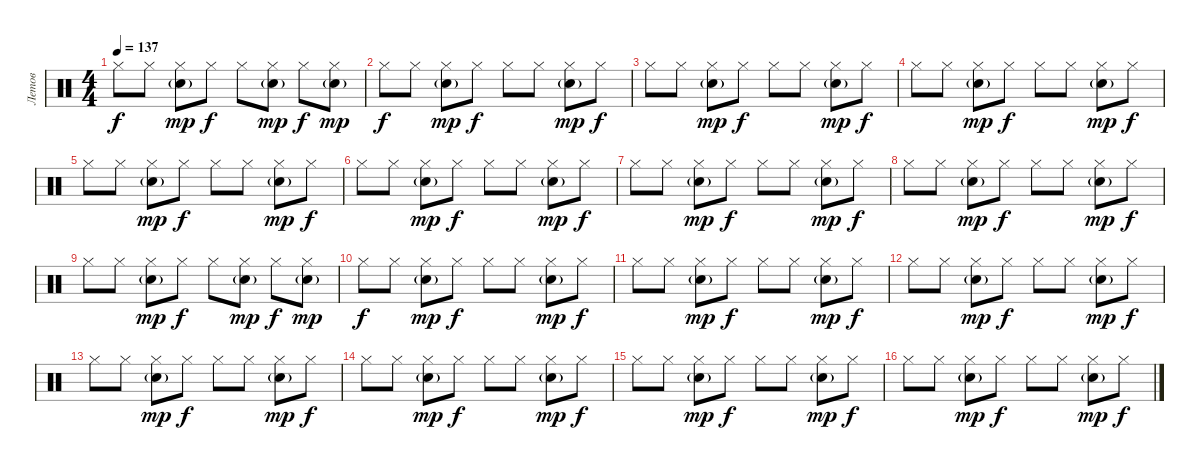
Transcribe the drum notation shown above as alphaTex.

\track ("Летов" "Летов") {instrument percussion}
\staff {score}
\articulation defaults
\ts (4 4)
\tempo 137
\clef neutral
\ks c "Hi-Hat (closed)".8{dy f} "Hi-Hat (closed)".8
("Hi-Hat (closed)" "Electric Snare (hit)"{g}).8{dy mp} "Hi-Hat (closed)".8{dy f} "Hi-Hat (closed)".8 ("Hi-Hat (closed)" "Electric Snare (hit)"{g}).8{dy mp} "Hi-Hat (closed)".8{dy f} ("Hi-Hat (closed)" "Electric Snare (hit)"{g}).8{dy mp} |
"Hi-Hat (closed)".8{dy f} "Hi-Hat (closed)".8 ("Hi-Hat (closed)" "Electric Snare (hit)"{g}).8{dy mp} "Hi-Hat (closed)".8{dy f} "Hi-Hat (closed)".8 "Hi-Hat (closed)".8 ("Hi-Hat (closed)" "Electric Snare (hit)"{g}).8{dy mp} "Hi-Hat (closed)".8{dy f} |
"Hi-Hat (closed)".8 "Hi-Hat (closed)".8 ("Hi-Hat (closed)" "Electric Snare (hit)"{g}).8{dy mp} "Hi-Hat (closed)".8{dy f} "Hi-Hat (closed)".8 "Hi-Hat (closed)".8 ("Hi-Hat (closed)" "Electric Snare (hit)"{g}).8{dy mp} "Hi-Hat (closed)".8{dy f} |
"Hi-Hat (closed)".8 "Hi-Hat (closed)".8 ("Hi-Hat (closed)" "Electric Snare (hit)"{g}).8{dy mp} "Hi-Hat (closed)".8{dy f} "Hi-Hat (closed)".8 "Hi-Hat (closed)".8 ("Hi-Hat (closed)" "Electric Snare (hit)"{g}).8{dy mp} "Hi-Hat (closed)".8{dy f} |
"Hi-Hat (closed)".8 "Hi-Hat (closed)".8 ("Hi-Hat (closed)" "Electric Snare (hit)"{g}).8{dy mp} "Hi-Hat (closed)".8{dy f} "Hi-Hat (closed)".8 "Hi-Hat (closed)".8 ("Hi-Hat (closed)" "Electric Snare (hit)"{g}).8{dy mp} "Hi-Hat (closed)".8{dy f} |
"Hi-Hat (closed)".8 "Hi-Hat (closed)".8 ("Hi-Hat (closed)" "Electric Snare (hit)"{g}).8{dy mp} "Hi-Hat (closed)".8{dy f} "Hi-Hat (closed)".8 "Hi-Hat (closed)".8 ("Hi-Hat (closed)" "Electric Snare (hit)"{g}).8{dy mp} "Hi-Hat (closed)".8{dy f} |
"Hi-Hat (closed)".8 "Hi-Hat (closed)".8 ("Hi-Hat (closed)" "Electric Snare (hit)"{g}).8{dy mp} "Hi-Hat (closed)".8{dy f} "Hi-Hat (closed)".8 "Hi-Hat (closed)".8 ("Hi-Hat (closed)" "Electric Snare (hit)"{g}).8{dy mp} "Hi-Hat (closed)".8{dy f} |
"Hi-Hat (closed)".8 "Hi-Hat (closed)".8 ("Hi-Hat (closed)" "Electric Snare (hit)"{g}).8{dy mp} "Hi-Hat (closed)".8{dy f} "Hi-Hat (closed)".8 "Hi-Hat (closed)".8 ("Hi-Hat (closed)" "Electric Snare (hit)"{g}).8{dy mp} "Hi-Hat (closed)".8{dy f} |
"Hi-Hat (closed)".8 "Hi-Hat (closed)".8 ("Hi-Hat (closed)" "Electric Snare (hit)"{g}).8{dy mp} "Hi-Hat (closed)".8{dy f} "Hi-Hat (closed)".8 ("Hi-Hat (closed)" "Electric Snare (hit)"{g}).8{dy mp} "Hi-Hat (closed)".8{dy f} ("Hi-Hat (closed)" "Electric Snare (hit)"{g}).8{dy mp} |
"Hi-Hat (closed)".8{dy f} "Hi-Hat (closed)".8 ("Hi-Hat (closed)" "Electric Snare (hit)"{g}).8{dy mp} "Hi-Hat (closed)".8{dy f} "Hi-Hat (closed)".8 "Hi-Hat (closed)".8 ("Hi-Hat (closed)" "Electric Snare (hit)"{g}).8{dy mp} "Hi-Hat (closed)".8{dy f} |
"Hi-Hat (closed)".8 "Hi-Hat (closed)".8 ("Hi-Hat (closed)" "Electric Snare (hit)"{g}).8{dy mp} "Hi-Hat (closed)".8{dy f} "Hi-Hat (closed)".8 "Hi-Hat (closed)".8 ("Hi-Hat (closed)" "Electric Snare (hit)"{g}).8{dy mp} "Hi-Hat (closed)".8{dy f} |
"Hi-Hat (closed)".8 "Hi-Hat (closed)".8 ("Hi-Hat (closed)" "Electric Snare (hit)"{g}).8{dy mp} "Hi-Hat (closed)".8{dy f} "Hi-Hat (closed)".8 "Hi-Hat (closed)".8 ("Hi-Hat (closed)" "Electric Snare (hit)"{g}).8{dy mp} "Hi-Hat (closed)".8{dy f} |
"Hi-Hat (closed)".8 "Hi-Hat (closed)".8 ("Hi-Hat (closed)" "Electric Snare (hit)"{g}).8{dy mp} "Hi-Hat (closed)".8{dy f} "Hi-Hat (closed)".8 "Hi-Hat (closed)".8 ("Hi-Hat (closed)" "Electric Snare (hit)"{g}).8{dy mp} "Hi-Hat (closed)".8{dy f} |
"Hi-Hat (closed)".8 "Hi-Hat (closed)".8 ("Hi-Hat (closed)" "Electric Snare (hit)"{g}).8{dy mp} "Hi-Hat (closed)".8{dy f} "Hi-Hat (closed)".8 "Hi-Hat (closed)".8 ("Hi-Hat (closed)" "Electric Snare (hit)"{g}).8{dy mp} "Hi-Hat (closed)".8{dy f} |
"Hi-Hat (closed)".8 "Hi-Hat (closed)".8 ("Hi-Hat (closed)" "Electric Snare (hit)"{g}).8{dy mp} "Hi-Hat (closed)".8{dy f} "Hi-Hat (closed)".8 "Hi-Hat (closed)".8 ("Hi-Hat (closed)" "Electric Snare (hit)"{g}).8{dy mp} "Hi-Hat (closed)".8{dy f} |
"Hi-Hat (closed)".8 "Hi-Hat (closed)".8 ("Hi-Hat (closed)" "Electric Snare (hit)"{g}).8{dy mp} "Hi-Hat (closed)".8{dy f} "Hi-Hat (closed)".8 "Hi-Hat (closed)".8 ("Hi-Hat (closed)" "Electric Snare (hit)"{g}).8{dy mp} "Hi-Hat (closed)".8{dy f}
